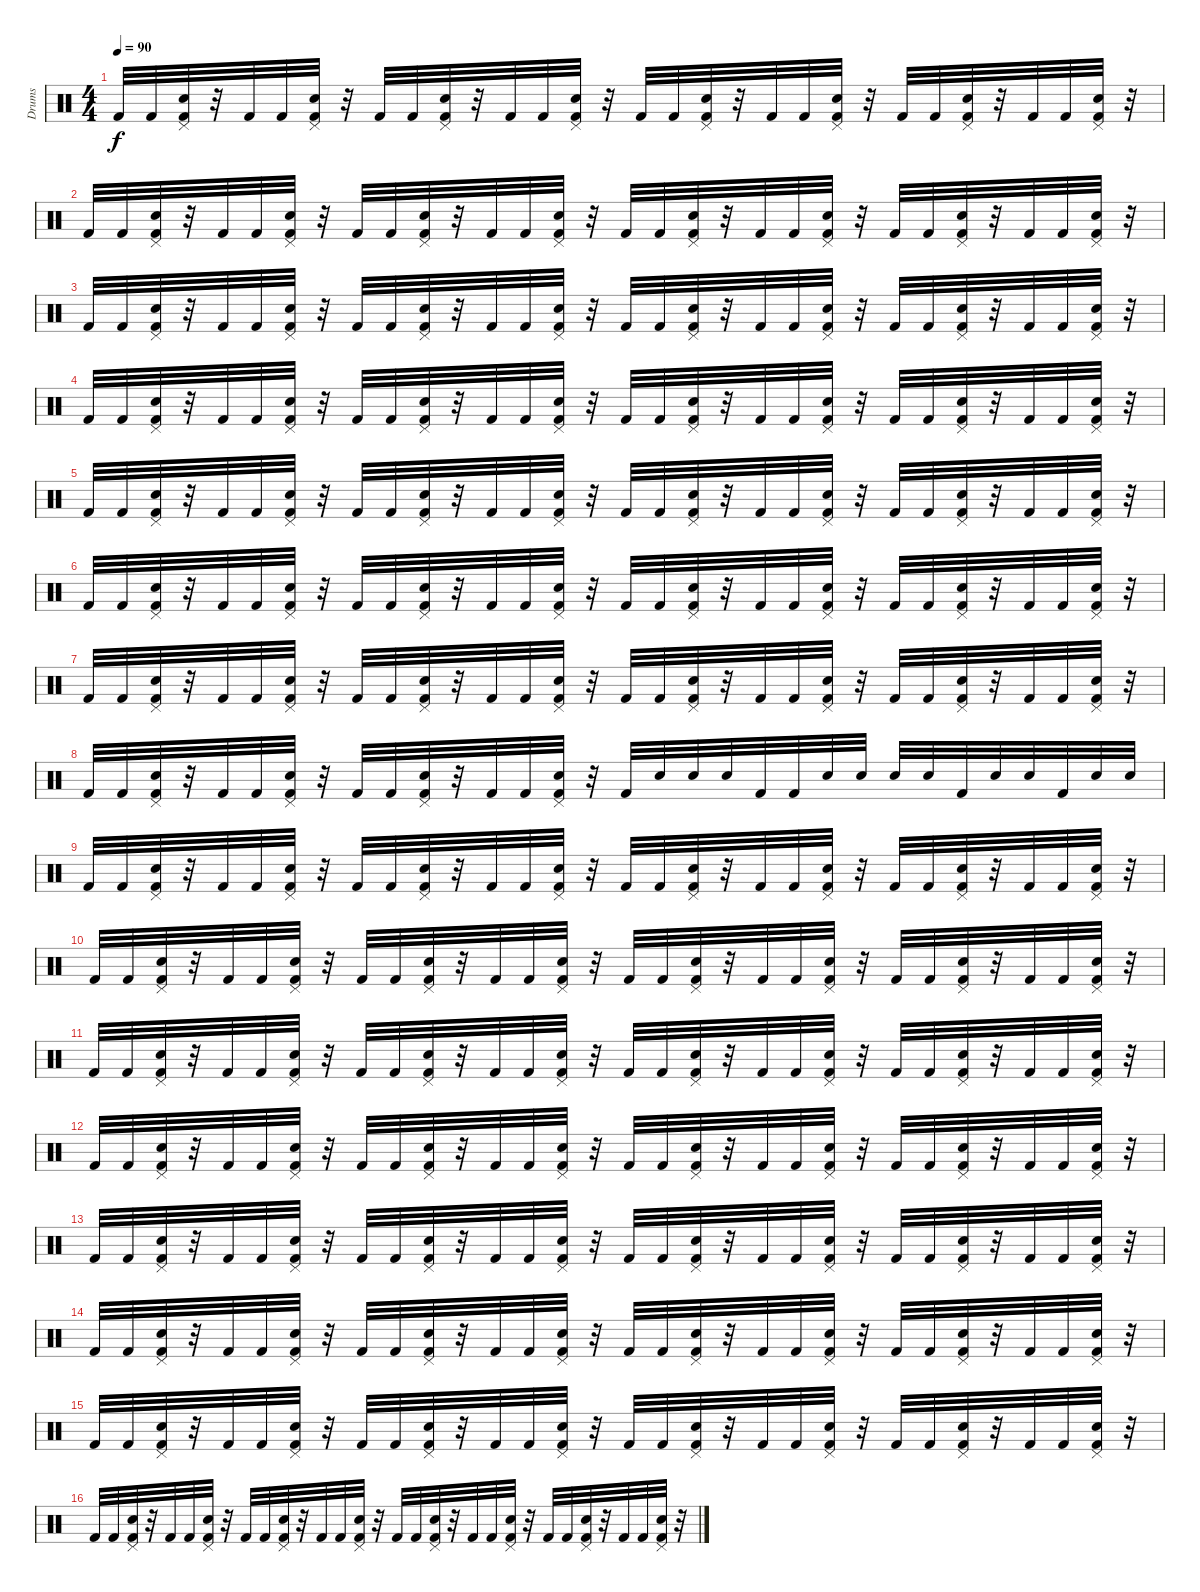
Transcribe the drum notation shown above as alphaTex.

\track ("Drums" "Drums") {instrument percussion}
\staff {score}
\articulation defaults
\ts (4 4)
\tempo 90
\clef neutral
\ks c "Kick (hit) 2".32{dy f} "Kick (hit) 2".32
("Pedal Hi-Hat (hit)" "Snare (hit) 2" "Kick (hit) 2").32 r.32 "Kick (hit) 2".32 "Kick (hit) 2".32 ("Pedal Hi-Hat (hit)" "Snare (hit) 2" "Kick (hit) 2").32 r.32 "Kick (hit) 2".32 "Kick (hit) 2".32 ("Pedal Hi-Hat (hit)" "Snare (hit) 2" "Kick (hit) 2").32 r.32 "Kick (hit) 2".32 "Kick (hit) 2".32 ("Pedal Hi-Hat (hit)" "Snare (hit) 2" "Kick (hit) 2").32 r.32 "Kick (hit) 2".32 "Kick (hit) 2".32 ("Pedal Hi-Hat (hit)" "Snare (hit) 2" "Kick (hit) 2").32 r.32 "Kick (hit) 2".32 "Kick (hit) 2".32 ("Pedal Hi-Hat (hit)" "Snare (hit) 2" "Kick (hit) 2").32 r.32 "Kick (hit) 2".32 "Kick (hit) 2".32 ("Pedal Hi-Hat (hit)" "Snare (hit) 2" "Kick (hit) 2").32 r.32 "Kick (hit) 2".32 "Kick (hit) 2".32 ("Pedal Hi-Hat (hit)" "Snare (hit) 2" "Kick (hit) 2").32 r.32 |
"Kick (hit) 2".32 "Kick (hit) 2".32 ("Pedal Hi-Hat (hit)" "Snare (hit) 2" "Kick (hit) 2").32 r.32 "Kick (hit) 2".32 "Kick (hit) 2".32 ("Pedal Hi-Hat (hit)" "Snare (hit) 2" "Kick (hit) 2").32 r.32 "Kick (hit) 2".32 "Kick (hit) 2".32 ("Pedal Hi-Hat (hit)" "Snare (hit) 2" "Kick (hit) 2").32 r.32 "Kick (hit) 2".32 "Kick (hit) 2".32 ("Pedal Hi-Hat (hit)" "Snare (hit) 2" "Kick (hit) 2").32 r.32 "Kick (hit) 2".32 "Kick (hit) 2".32 ("Pedal Hi-Hat (hit)" "Snare (hit) 2" "Kick (hit) 2").32 r.32 "Kick (hit) 2".32 "Kick (hit) 2".32 ("Pedal Hi-Hat (hit)" "Snare (hit) 2" "Kick (hit) 2").32 r.32 "Kick (hit) 2".32 "Kick (hit) 2".32 ("Pedal Hi-Hat (hit)" "Snare (hit) 2" "Kick (hit) 2").32 r.32 "Kick (hit) 2".32 "Kick (hit) 2".32 ("Pedal Hi-Hat (hit)" "Snare (hit) 2" "Kick (hit) 2").32 r.32 |
"Kick (hit) 2".32 "Kick (hit) 2".32 ("Pedal Hi-Hat (hit)" "Snare (hit) 2" "Kick (hit) 2").32 r.32 "Kick (hit) 2".32 "Kick (hit) 2".32 ("Pedal Hi-Hat (hit)" "Snare (hit) 2" "Kick (hit) 2").32 r.32 "Kick (hit) 2".32 "Kick (hit) 2".32 ("Pedal Hi-Hat (hit)" "Snare (hit) 2" "Kick (hit) 2").32 r.32 "Kick (hit) 2".32 "Kick (hit) 2".32 ("Pedal Hi-Hat (hit)" "Snare (hit) 2" "Kick (hit) 2").32 r.32 "Kick (hit) 2".32 "Kick (hit) 2".32 ("Pedal Hi-Hat (hit)" "Snare (hit) 2" "Kick (hit) 2").32 r.32 "Kick (hit) 2".32 "Kick (hit) 2".32 ("Pedal Hi-Hat (hit)" "Snare (hit) 2" "Kick (hit) 2").32 r.32 "Kick (hit) 2".32 "Kick (hit) 2".32 ("Pedal Hi-Hat (hit)" "Snare (hit) 2" "Kick (hit) 2").32 r.32 "Kick (hit) 2".32 "Kick (hit) 2".32 ("Pedal Hi-Hat (hit)" "Snare (hit) 2" "Kick (hit) 2").32 r.32 |
"Kick (hit) 2".32 "Kick (hit) 2".32 ("Pedal Hi-Hat (hit)" "Snare (hit) 2" "Kick (hit) 2").32 r.32 "Kick (hit) 2".32 "Kick (hit) 2".32 ("Pedal Hi-Hat (hit)" "Snare (hit) 2" "Kick (hit) 2").32 r.32 "Kick (hit) 2".32 "Kick (hit) 2".32 ("Pedal Hi-Hat (hit)" "Snare (hit) 2" "Kick (hit) 2").32 r.32 "Kick (hit) 2".32 "Kick (hit) 2".32 ("Pedal Hi-Hat (hit)" "Snare (hit) 2" "Kick (hit) 2").32 r.32 "Kick (hit) 2".32 "Kick (hit) 2".32 ("Pedal Hi-Hat (hit)" "Snare (hit) 2" "Kick (hit) 2").32 r.32 "Kick (hit) 2".32 "Kick (hit) 2".32 ("Pedal Hi-Hat (hit)" "Snare (hit) 2" "Kick (hit) 2").32 r.32 "Kick (hit) 2".32 "Kick (hit) 2".32 ("Pedal Hi-Hat (hit)" "Snare (hit) 2" "Kick (hit) 2").32 r.32 "Kick (hit) 2".32 "Kick (hit) 2".32 ("Pedal Hi-Hat (hit)" "Snare (hit) 2" "Kick (hit) 2").32 r.32 |
"Kick (hit) 2".32 "Kick (hit) 2".32 ("Pedal Hi-Hat (hit)" "Snare (hit) 2" "Kick (hit) 2").32 r.32 "Kick (hit) 2".32 "Kick (hit) 2".32 ("Pedal Hi-Hat (hit)" "Snare (hit) 2" "Kick (hit) 2").32 r.32 "Kick (hit) 2".32 "Kick (hit) 2".32 ("Pedal Hi-Hat (hit)" "Snare (hit) 2" "Kick (hit) 2").32 r.32 "Kick (hit) 2".32 "Kick (hit) 2".32 ("Pedal Hi-Hat (hit)" "Snare (hit) 2" "Kick (hit) 2").32 r.32 "Kick (hit) 2".32 "Kick (hit) 2".32 ("Pedal Hi-Hat (hit)" "Snare (hit) 2" "Kick (hit) 2").32 r.32 "Kick (hit) 2".32 "Kick (hit) 2".32 ("Pedal Hi-Hat (hit)" "Snare (hit) 2" "Kick (hit) 2").32 r.32 "Kick (hit) 2".32 "Kick (hit) 2".32 ("Pedal Hi-Hat (hit)" "Snare (hit) 2" "Kick (hit) 2").32 r.32 "Kick (hit) 2".32 "Kick (hit) 2".32 ("Pedal Hi-Hat (hit)" "Snare (hit) 2" "Kick (hit) 2").32 r.32 |
"Kick (hit) 2".32 "Kick (hit) 2".32 ("Pedal Hi-Hat (hit)" "Snare (hit) 2" "Kick (hit) 2").32 r.32 "Kick (hit) 2".32 "Kick (hit) 2".32 ("Pedal Hi-Hat (hit)" "Snare (hit) 2" "Kick (hit) 2").32 r.32 "Kick (hit) 2".32 "Kick (hit) 2".32 ("Pedal Hi-Hat (hit)" "Snare (hit) 2" "Kick (hit) 2").32 r.32 "Kick (hit) 2".32 "Kick (hit) 2".32 ("Pedal Hi-Hat (hit)" "Snare (hit) 2" "Kick (hit) 2").32 r.32 "Kick (hit) 2".32 "Kick (hit) 2".32 ("Pedal Hi-Hat (hit)" "Snare (hit) 2" "Kick (hit) 2").32 r.32 "Kick (hit) 2".32 "Kick (hit) 2".32 ("Pedal Hi-Hat (hit)" "Snare (hit) 2" "Kick (hit) 2").32 r.32 "Kick (hit) 2".32 "Kick (hit) 2".32 ("Pedal Hi-Hat (hit)" "Snare (hit) 2" "Kick (hit) 2").32 r.32 "Kick (hit) 2".32 "Kick (hit) 2".32 ("Pedal Hi-Hat (hit)" "Snare (hit) 2" "Kick (hit) 2").32 r.32 |
"Kick (hit) 2".32 "Kick (hit) 2".32 ("Pedal Hi-Hat (hit)" "Snare (hit) 2" "Kick (hit) 2").32 r.32 "Kick (hit) 2".32 "Kick (hit) 2".32 ("Pedal Hi-Hat (hit)" "Snare (hit) 2" "Kick (hit) 2").32 r.32 "Kick (hit) 2".32 "Kick (hit) 2".32 ("Pedal Hi-Hat (hit)" "Snare (hit) 2" "Kick (hit) 2").32 r.32 "Kick (hit) 2".32 "Kick (hit) 2".32 ("Pedal Hi-Hat (hit)" "Snare (hit) 2" "Kick (hit) 2").32 r.32 "Kick (hit) 2".32 "Kick (hit) 2".32 ("Pedal Hi-Hat (hit)" "Snare (hit) 2" "Kick (hit) 2").32 r.32 "Kick (hit) 2".32 "Kick (hit) 2".32 ("Pedal Hi-Hat (hit)" "Snare (hit) 2" "Kick (hit) 2").32 r.32 "Kick (hit) 2".32 "Kick (hit) 2".32 ("Pedal Hi-Hat (hit)" "Snare (hit) 2" "Kick (hit) 2").32 r.32 "Kick (hit) 2".32 "Kick (hit) 2".32 ("Pedal Hi-Hat (hit)" "Snare (hit) 2" "Kick (hit) 2").32 r.32 |
"Kick (hit) 2".32 "Kick (hit) 2".32 ("Pedal Hi-Hat (hit)" "Snare (hit) 2" "Kick (hit) 2").32 r.32 "Kick (hit) 2".32 "Kick (hit) 2".32 ("Pedal Hi-Hat (hit)" "Snare (hit) 2" "Kick (hit) 2").32 r.32 "Kick (hit) 2".32 "Kick (hit) 2".32 ("Pedal Hi-Hat (hit)" "Snare (hit) 2" "Kick (hit) 2").32 r.32 "Kick (hit) 2".32 "Kick (hit) 2".32 ("Pedal Hi-Hat (hit)" "Snare (hit) 2" "Kick (hit) 2").32 r.32 "Kick (hit) 2".32 "Snare (hit) 2".32 "Snare (hit) 2".32 "Snare (hit) 2".32 "Kick (hit) 2".32 "Kick (hit) 2".32 "Snare (hit) 2".32 "Snare (hit) 2".32 "Snare (hit) 2".32 "Snare (hit) 2".32 "Kick (hit) 2".32 "Snare (hit) 2".32 "Snare (hit) 2".32 "Kick (hit) 2".32 "Snare (hit) 2".32 "Snare (hit) 2".32 |
"Kick (hit) 2".32 "Kick (hit) 2".32 ("Pedal Hi-Hat (hit)" "Snare (hit) 2" "Kick (hit) 2").32 r.32 "Kick (hit) 2".32 "Kick (hit) 2".32 ("Pedal Hi-Hat (hit)" "Snare (hit) 2" "Kick (hit) 2").32 r.32 "Kick (hit) 2".32 "Kick (hit) 2".32 ("Pedal Hi-Hat (hit)" "Snare (hit) 2" "Kick (hit) 2").32 r.32 "Kick (hit) 2".32 "Kick (hit) 2".32 ("Pedal Hi-Hat (hit)" "Snare (hit) 2" "Kick (hit) 2").32 r.32 "Kick (hit) 2".32 "Kick (hit) 2".32 ("Pedal Hi-Hat (hit)" "Snare (hit) 2" "Kick (hit) 2").32 r.32 "Kick (hit) 2".32 "Kick (hit) 2".32 ("Pedal Hi-Hat (hit)" "Snare (hit) 2" "Kick (hit) 2").32 r.32 "Kick (hit) 2".32 "Kick (hit) 2".32 ("Pedal Hi-Hat (hit)" "Snare (hit) 2" "Kick (hit) 2").32 r.32 "Kick (hit) 2".32 "Kick (hit) 2".32 ("Pedal Hi-Hat (hit)" "Snare (hit) 2" "Kick (hit) 2").32 r.32 |
"Kick (hit) 2".32 "Kick (hit) 2".32 ("Pedal Hi-Hat (hit)" "Snare (hit) 2" "Kick (hit) 2").32 r.32 "Kick (hit) 2".32 "Kick (hit) 2".32 ("Pedal Hi-Hat (hit)" "Snare (hit) 2" "Kick (hit) 2").32 r.32 "Kick (hit) 2".32 "Kick (hit) 2".32 ("Pedal Hi-Hat (hit)" "Snare (hit) 2" "Kick (hit) 2").32 r.32 "Kick (hit) 2".32 "Kick (hit) 2".32 ("Pedal Hi-Hat (hit)" "Snare (hit) 2" "Kick (hit) 2").32 r.32 "Kick (hit) 2".32 "Kick (hit) 2".32 ("Pedal Hi-Hat (hit)" "Snare (hit) 2" "Kick (hit) 2").32 r.32 "Kick (hit) 2".32 "Kick (hit) 2".32 ("Pedal Hi-Hat (hit)" "Snare (hit) 2" "Kick (hit) 2").32 r.32 "Kick (hit) 2".32 "Kick (hit) 2".32 ("Pedal Hi-Hat (hit)" "Snare (hit) 2" "Kick (hit) 2").32 r.32 "Kick (hit) 2".32 "Kick (hit) 2".32 ("Pedal Hi-Hat (hit)" "Snare (hit) 2" "Kick (hit) 2").32 r.32 |
"Kick (hit) 2".32 "Kick (hit) 2".32 ("Pedal Hi-Hat (hit)" "Snare (hit) 2" "Kick (hit) 2").32 r.32 "Kick (hit) 2".32 "Kick (hit) 2".32 ("Pedal Hi-Hat (hit)" "Snare (hit) 2" "Kick (hit) 2").32 r.32 "Kick (hit) 2".32 "Kick (hit) 2".32 ("Pedal Hi-Hat (hit)" "Snare (hit) 2" "Kick (hit) 2").32 r.32 "Kick (hit) 2".32 "Kick (hit) 2".32 ("Pedal Hi-Hat (hit)" "Snare (hit) 2" "Kick (hit) 2").32 r.32 "Kick (hit) 2".32 "Kick (hit) 2".32 ("Pedal Hi-Hat (hit)" "Snare (hit) 2" "Kick (hit) 2").32 r.32 "Kick (hit) 2".32 "Kick (hit) 2".32 ("Pedal Hi-Hat (hit)" "Snare (hit) 2" "Kick (hit) 2").32 r.32 "Kick (hit) 2".32 "Kick (hit) 2".32 ("Pedal Hi-Hat (hit)" "Snare (hit) 2" "Kick (hit) 2").32 r.32 "Kick (hit) 2".32 "Kick (hit) 2".32 ("Pedal Hi-Hat (hit)" "Snare (hit) 2" "Kick (hit) 2").32 r.32 |
"Kick (hit) 2".32 "Kick (hit) 2".32 ("Pedal Hi-Hat (hit)" "Snare (hit) 2" "Kick (hit) 2").32 r.32 "Kick (hit) 2".32 "Kick (hit) 2".32 ("Pedal Hi-Hat (hit)" "Snare (hit) 2" "Kick (hit) 2").32 r.32 "Kick (hit) 2".32 "Kick (hit) 2".32 ("Pedal Hi-Hat (hit)" "Snare (hit) 2" "Kick (hit) 2").32 r.32 "Kick (hit) 2".32 "Kick (hit) 2".32 ("Pedal Hi-Hat (hit)" "Snare (hit) 2" "Kick (hit) 2").32 r.32 "Kick (hit) 2".32 "Kick (hit) 2".32 ("Pedal Hi-Hat (hit)" "Snare (hit) 2" "Kick (hit) 2").32 r.32 "Kick (hit) 2".32 "Kick (hit) 2".32 ("Pedal Hi-Hat (hit)" "Snare (hit) 2" "Kick (hit) 2").32 r.32 "Kick (hit) 2".32 "Kick (hit) 2".32 ("Pedal Hi-Hat (hit)" "Snare (hit) 2" "Kick (hit) 2").32 r.32 "Kick (hit) 2".32 "Kick (hit) 2".32 ("Pedal Hi-Hat (hit)" "Snare (hit) 2" "Kick (hit) 2").32 r.32 |
"Kick (hit) 2".32 "Kick (hit) 2".32 ("Pedal Hi-Hat (hit)" "Snare (hit) 2" "Kick (hit) 2").32 r.32 "Kick (hit) 2".32 "Kick (hit) 2".32 ("Pedal Hi-Hat (hit)" "Snare (hit) 2" "Kick (hit) 2").32 r.32 "Kick (hit) 2".32 "Kick (hit) 2".32 ("Pedal Hi-Hat (hit)" "Snare (hit) 2" "Kick (hit) 2").32 r.32 "Kick (hit) 2".32 "Kick (hit) 2".32 ("Pedal Hi-Hat (hit)" "Snare (hit) 2" "Kick (hit) 2").32 r.32 "Kick (hit) 2".32 "Kick (hit) 2".32 ("Pedal Hi-Hat (hit)" "Snare (hit) 2" "Kick (hit) 2").32 r.32 "Kick (hit) 2".32 "Kick (hit) 2".32 ("Pedal Hi-Hat (hit)" "Snare (hit) 2" "Kick (hit) 2").32 r.32 "Kick (hit) 2".32 "Kick (hit) 2".32 ("Pedal Hi-Hat (hit)" "Snare (hit) 2" "Kick (hit) 2").32 r.32 "Kick (hit) 2".32 "Kick (hit) 2".32 ("Pedal Hi-Hat (hit)" "Snare (hit) 2" "Kick (hit) 2").32 r.32 |
"Kick (hit) 2".32 "Kick (hit) 2".32 ("Pedal Hi-Hat (hit)" "Snare (hit) 2" "Kick (hit) 2").32 r.32 "Kick (hit) 2".32 "Kick (hit) 2".32 ("Pedal Hi-Hat (hit)" "Snare (hit) 2" "Kick (hit) 2").32 r.32 "Kick (hit) 2".32 "Kick (hit) 2".32 ("Pedal Hi-Hat (hit)" "Snare (hit) 2" "Kick (hit) 2").32 r.32 "Kick (hit) 2".32 "Kick (hit) 2".32 ("Pedal Hi-Hat (hit)" "Snare (hit) 2" "Kick (hit) 2").32 r.32 "Kick (hit) 2".32 "Kick (hit) 2".32 ("Pedal Hi-Hat (hit)" "Snare (hit) 2" "Kick (hit) 2").32 r.32 "Kick (hit) 2".32 "Kick (hit) 2".32 ("Pedal Hi-Hat (hit)" "Snare (hit) 2" "Kick (hit) 2").32 r.32 "Kick (hit) 2".32 "Kick (hit) 2".32 ("Pedal Hi-Hat (hit)" "Snare (hit) 2" "Kick (hit) 2").32 r.32 "Kick (hit) 2".32 "Kick (hit) 2".32 ("Pedal Hi-Hat (hit)" "Snare (hit) 2" "Kick (hit) 2").32 r.32 |
"Kick (hit) 2".32 "Kick (hit) 2".32 ("Pedal Hi-Hat (hit)" "Snare (hit) 2" "Kick (hit) 2").32 r.32 "Kick (hit) 2".32 "Kick (hit) 2".32 ("Pedal Hi-Hat (hit)" "Snare (hit) 2" "Kick (hit) 2").32 r.32 "Kick (hit) 2".32 "Kick (hit) 2".32 ("Pedal Hi-Hat (hit)" "Snare (hit) 2" "Kick (hit) 2").32 r.32 "Kick (hit) 2".32 "Kick (hit) 2".32 ("Pedal Hi-Hat (hit)" "Snare (hit) 2" "Kick (hit) 2").32 r.32 "Kick (hit) 2".32 "Kick (hit) 2".32 ("Pedal Hi-Hat (hit)" "Snare (hit) 2" "Kick (hit) 2").32 r.32 "Kick (hit) 2".32 "Kick (hit) 2".32 ("Pedal Hi-Hat (hit)" "Snare (hit) 2" "Kick (hit) 2").32 r.32 "Kick (hit) 2".32 "Kick (hit) 2".32 ("Pedal Hi-Hat (hit)" "Snare (hit) 2" "Kick (hit) 2").32 r.32 "Kick (hit) 2".32 "Kick (hit) 2".32 ("Pedal Hi-Hat (hit)" "Snare (hit) 2" "Kick (hit) 2").32 r.32 |
"Kick (hit) 2".32 "Kick (hit) 2".32 ("Pedal Hi-Hat (hit)" "Snare (hit) 2" "Kick (hit) 2").32 r.32 "Kick (hit) 2".32 "Kick (hit) 2".32 ("Pedal Hi-Hat (hit)" "Snare (hit) 2" "Kick (hit) 2").32 r.32 "Kick (hit) 2".32 "Kick (hit) 2".32 ("Pedal Hi-Hat (hit)" "Snare (hit) 2" "Kick (hit) 2").32 r.32 "Kick (hit) 2".32 "Kick (hit) 2".32 ("Pedal Hi-Hat (hit)" "Snare (hit) 2" "Kick (hit) 2").32 r.32 "Kick (hit) 2".32 "Kick (hit) 2".32 ("Pedal Hi-Hat (hit)" "Snare (hit) 2" "Kick (hit) 2").32 r.32 "Kick (hit) 2".32 "Kick (hit) 2".32 ("Pedal Hi-Hat (hit)" "Snare (hit) 2" "Kick (hit) 2").32 r.32 "Kick (hit) 2".32 "Kick (hit) 2".32 ("Pedal Hi-Hat (hit)" "Snare (hit) 2" "Kick (hit) 2").32 r.32 "Kick (hit) 2".32 "Kick (hit) 2".32 ("Pedal Hi-Hat (hit)" "Snare (hit) 2" "Kick (hit) 2").32 r.32
